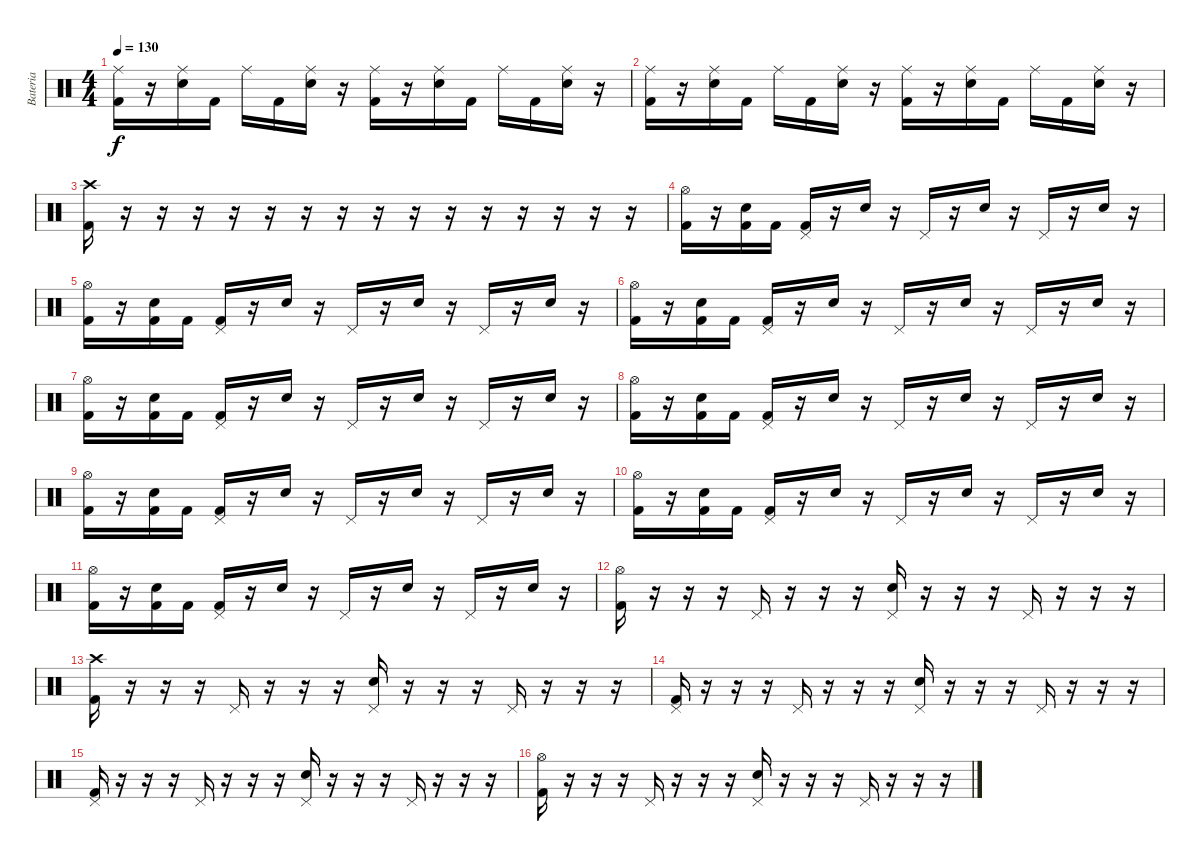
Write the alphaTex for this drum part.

\track ("Bateria" "Bateria") {instrument percussion}
\staff {score}
\articulation defaults
\ts (4 4)
\tempo 130
\clef neutral
\ks c
("Ride (middle)" "Kick (hit) 2").16{dy f} r.16 ("Ride (middle)" "Snare (hit) 2").16 "Kick (hit) 2".16 "Ride (middle)".16 "Kick (hit) 2".16 ("Ride (middle)" "Snare (hit) 2").16 r.16 ("Ride (middle)" "Kick (hit) 2").16 r.16 ("Ride (middle)" "Snare (hit) 2").16 "Kick (hit) 2".16 "Ride (middle)".16 "Kick (hit) 2".16 ("Ride (middle)" "Snare (hit) 2").16 r.16 |
("Ride (middle)" "Kick (hit) 2").16 r.16 ("Ride (middle)" "Snare (hit) 2").16 "Kick (hit) 2".16 "Ride (middle)".16 "Kick (hit) 2".16 ("Ride (middle)" "Snare (hit) 2").16 r.16 ("Ride (middle)" "Kick (hit) 2").16 r.16 ("Ride (middle)" "Snare (hit) 2").16 "Kick (hit) 2".16 "Ride (middle)".16 "Kick (hit) 2".16 ("Ride (middle)" "Snare (hit) 2").16 r.16 |
("Crash high (hit)" "Kick (hit) 2").16 r.16 r.16 r.16 r.16 r.16 r.16 r.16 r.16 r.16 r.16 r.16 r.16 r.16 r.16 r.16 |
("Hi-Hat (open)" "Kick (hit) 2").16 r.16 ("Snare (hit) 2" "Kick (hit) 2").16 "Kick (hit) 2".16 ("Pedal Hi-Hat (hit)" "Kick (hit) 2").16 r.16 "Snare (hit) 2".16 r.16 "Pedal Hi-Hat (hit)".16 r.16 "Snare (hit) 2".16 r.16 "Pedal Hi-Hat (hit)".16 r.16 "Snare (hit) 2".16 r.16 |
("Hi-Hat (open)" "Kick (hit) 2").16 r.16 ("Snare (hit) 2" "Kick (hit) 2").16 "Kick (hit) 2".16 ("Pedal Hi-Hat (hit)" "Kick (hit) 2").16 r.16 "Snare (hit) 2".16 r.16 "Pedal Hi-Hat (hit)".16 r.16 "Snare (hit) 2".16 r.16 "Pedal Hi-Hat (hit)".16 r.16 "Snare (hit) 2".16 r.16 |
("Hi-Hat (open)" "Kick (hit) 2").16 r.16 ("Snare (hit) 2" "Kick (hit) 2").16 "Kick (hit) 2".16 ("Pedal Hi-Hat (hit)" "Kick (hit) 2").16 r.16 "Snare (hit) 2".16 r.16 "Pedal Hi-Hat (hit)".16 r.16 "Snare (hit) 2".16 r.16 "Pedal Hi-Hat (hit)".16 r.16 "Snare (hit) 2".16 r.16 |
("Hi-Hat (open)" "Kick (hit) 2").16 r.16 ("Snare (hit) 2" "Kick (hit) 2").16 "Kick (hit) 2".16 ("Pedal Hi-Hat (hit)" "Kick (hit) 2").16 r.16 "Snare (hit) 2".16 r.16 "Pedal Hi-Hat (hit)".16 r.16 "Snare (hit) 2".16 r.16 "Pedal Hi-Hat (hit)".16 r.16 "Snare (hit) 2".16 r.16 |
("Hi-Hat (open)" "Kick (hit) 2").16 r.16 ("Snare (hit) 2" "Kick (hit) 2").16 "Kick (hit) 2".16 ("Pedal Hi-Hat (hit)" "Kick (hit) 2").16 r.16 "Snare (hit) 2".16 r.16 "Pedal Hi-Hat (hit)".16 r.16 "Snare (hit) 2".16 r.16 "Pedal Hi-Hat (hit)".16 r.16 "Snare (hit) 2".16 r.16 |
("Hi-Hat (open)" "Kick (hit) 2").16 r.16 ("Snare (hit) 2" "Kick (hit) 2").16 "Kick (hit) 2".16 ("Pedal Hi-Hat (hit)" "Kick (hit) 2").16 r.16 "Snare (hit) 2".16 r.16 "Pedal Hi-Hat (hit)".16 r.16 "Snare (hit) 2".16 r.16 "Pedal Hi-Hat (hit)".16 r.16 "Snare (hit) 2".16 r.16 |
("Hi-Hat (open)" "Kick (hit) 2").16 r.16 ("Snare (hit) 2" "Kick (hit) 2").16 "Kick (hit) 2".16 ("Pedal Hi-Hat (hit)" "Kick (hit) 2").16 r.16 "Snare (hit) 2".16 r.16 "Pedal Hi-Hat (hit)".16 r.16 "Snare (hit) 2".16 r.16 "Pedal Hi-Hat (hit)".16 r.16 "Snare (hit) 2".16 r.16 |
("Hi-Hat (open)" "Kick (hit) 2").16 r.16 ("Snare (hit) 2" "Kick (hit) 2").16 "Kick (hit) 2".16 ("Pedal Hi-Hat (hit)" "Kick (hit) 2").16 r.16 "Snare (hit) 2".16 r.16 "Pedal Hi-Hat (hit)".16 r.16 "Snare (hit) 2".16 r.16 "Pedal Hi-Hat (hit)".16 r.16 "Snare (hit) 2".16 r.16 |
("Hi-Hat (open)" "Kick (hit) 2").16 r.16 r.16 r.16 "Pedal Hi-Hat (hit)".16 r.16 r.16 r.16 ("Pedal Hi-Hat (hit)" "Snare (hit) 2").16 r.16 r.16 r.16 "Pedal Hi-Hat (hit)".16 r.16 r.16 r.16 |
("Crash high (hit)" "Kick (hit) 2").16 r.16 r.16 r.16 "Pedal Hi-Hat (hit)".16 r.16 r.16 r.16 ("Pedal Hi-Hat (hit)" "Snare (hit) 2").16 r.16 r.16 r.16 "Pedal Hi-Hat (hit)".16 r.16 r.16 r.16 |
("Pedal Hi-Hat (hit)" "Kick (hit) 2").16 r.16 r.16 r.16 "Pedal Hi-Hat (hit)".16 r.16 r.16 r.16 ("Pedal Hi-Hat (hit)" "Snare (hit) 2").16 r.16 r.16 r.16 "Pedal Hi-Hat (hit)".16 r.16 r.16 r.16 |
("Pedal Hi-Hat (hit)" "Kick (hit) 2").16 r.16 r.16 r.16 "Pedal Hi-Hat (hit)".16 r.16 r.16 r.16 ("Pedal Hi-Hat (hit)" "Snare (hit) 2").16 r.16 r.16 r.16 "Pedal Hi-Hat (hit)".16 r.16 r.16 r.16 |
("Hi-Hat (open)" "Kick (hit) 2").16 r.16 r.16 r.16 "Pedal Hi-Hat (hit)".16 r.16 r.16 r.16 ("Pedal Hi-Hat (hit)" "Snare (hit) 2").16 r.16 r.16 r.16 "Pedal Hi-Hat (hit)".16 r.16 r.16 r.16
